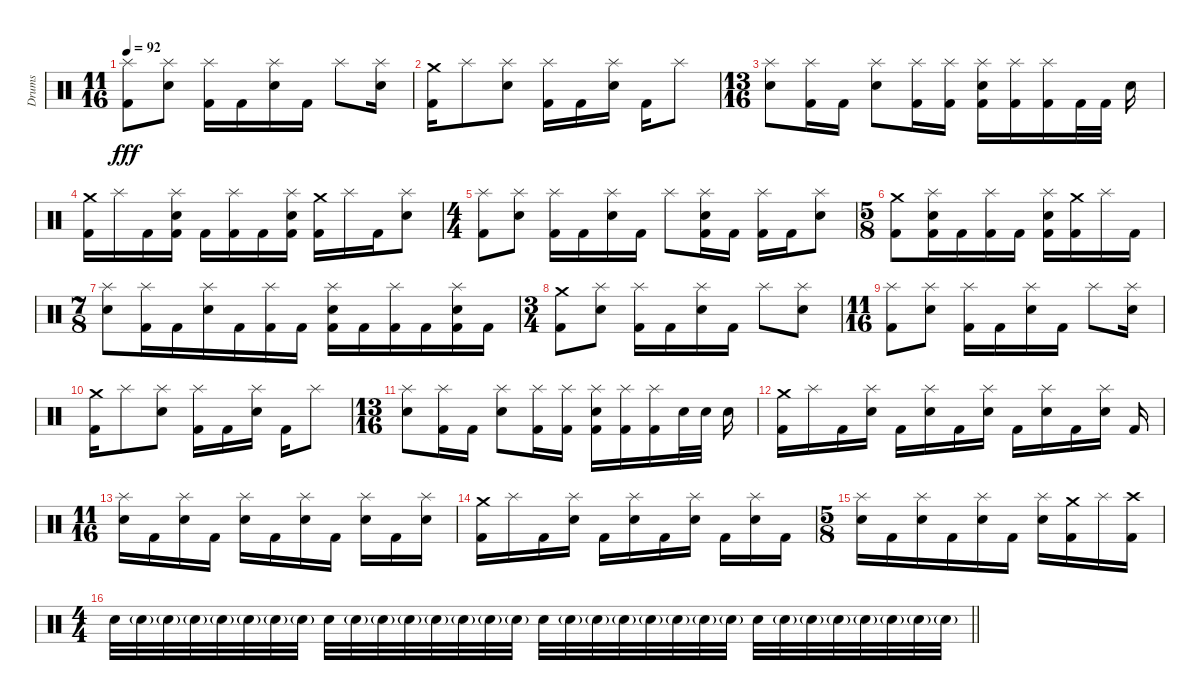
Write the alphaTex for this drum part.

\track ("Drums" "Drums") {instrument percussion}
\staff {score}
\articulation defaults
\ts (11 16)
\tempo 92
\clef neutral
\ks c
("Splash (hit)" "Kick (hit) 2").8{dy fff} ("Splash (hit)" "Snare (hit) 2").8 ("Splash (hit)" "Kick (hit) 2").16 "Kick (hit) 2".16 ("Splash (hit)" "Snare (hit) 2").16 "Kick (hit) 2".16 "Splash (hit)".8 ("Splash (hit)" "Snare (hit) 2").16 |
("Crash medium (hit)" "Kick (hit) 2").16 "Splash (hit)".8 ("Splash (hit)" "Snare (hit) 2").8 ("Splash (hit)" "Kick (hit) 2").16 "Kick (hit) 2".16 ("Splash (hit)" "Snare (hit) 2").16 "Kick (hit) 2".16 "Splash (hit)".8 |
\ts (13 16)
("Splash (hit)" "Snare (hit) 2").8 ("Splash (hit)" "Kick (hit) 2").16 "Kick (hit) 2".16 ("Splash (hit)" "Snare (hit) 2").8 ("Splash (hit)" "Kick (hit) 2").16 ("Splash (hit)" "Kick (hit) 2").16 ("Splash (hit)" "Snare (hit) 2" "Kick (hit) 2").16 ("Splash (hit)" "Kick (hit) 2").16 ("Splash (hit)" "Kick (hit) 2").16 "Kick (hit) 2".32 "Kick (hit) 2".32 "Snare (hit) 2".16 |
("Crash medium (hit)" "Kick (hit) 2").16 "Splash (hit)".16 "Kick (hit) 2".16 ("Splash (hit)" "Snare (hit) 2" "Kick (hit) 2").16 "Kick (hit) 2".16 ("Splash (hit)" "Kick (hit) 2").16 "Kick (hit) 2".16 ("Splash (hit)" "Snare (hit) 2" "Kick (hit) 2").16 ("Crash medium (hit)" "Kick (hit) 2").16 "Splash (hit)".16 "Kick (hit) 2".16 ("Splash (hit)" "Snare (hit) 2").8 |
\ts (4 4)
("Splash (hit)" "Kick (hit) 2").8 ("Splash (hit)" "Snare (hit) 2").8 ("Splash (hit)" "Kick (hit) 2").16 "Kick (hit) 2".16 ("Splash (hit)" "Snare (hit) 2").16 "Kick (hit) 2".16 "Splash (hit)".8 ("Splash (hit)" "Snare (hit) 2" "Kick (hit) 2").16 "Kick (hit) 2".16 ("Splash (hit)" "Kick (hit) 2").16 "Kick (hit) 2".16 ("Splash (hit)" "Snare (hit) 2").8 |
\ts (5 8)
("Crash medium (hit)" "Kick (hit) 2").8 ("Splash (hit)" "Snare (hit) 2" "Kick (hit) 2").16 "Kick (hit) 2".16 ("Splash (hit)" "Kick (hit) 2").16 "Kick (hit) 2".16 ("Splash (hit)" "Snare (hit) 2" "Kick (hit) 2").16 ("Crash medium (hit)" "Kick (hit) 2").16 "Splash (hit)".16 "Kick (hit) 2".16 |
\ts (7 8)
("Splash (hit)" "Snare (hit) 2").8 ("Splash (hit)" "Kick (hit) 2").16 "Kick (hit) 2".16 ("Splash (hit)" "Snare (hit) 2").16 "Kick (hit) 2".16 ("Splash (hit)" "Kick (hit) 2").16 "Kick (hit) 2".16 ("Splash (hit)" "Snare (hit) 2" "Kick (hit) 2").16 "Kick (hit) 2".16 ("Splash (hit)" "Kick (hit) 2").16 "Kick (hit) 2".16 ("Splash (hit)" "Snare (hit) 2" "Kick (hit) 2").16 "Kick (hit) 2".16 |
\ts (3 4)
("Crash medium (hit)" "Kick (hit) 2").8 ("Splash (hit)" "Snare (hit) 2").8 ("Splash (hit)" "Kick (hit) 2").16 "Kick (hit) 2".16 ("Splash (hit)" "Snare (hit) 2").16 "Kick (hit) 2".16 "Splash (hit)".8 ("Splash (hit)" "Snare (hit) 2").8 |
\ts (11 16)
("Splash (hit)" "Kick (hit) 2").8 ("Splash (hit)" "Snare (hit) 2").8 ("Splash (hit)" "Kick (hit) 2").16 "Kick (hit) 2".16 ("Splash (hit)" "Snare (hit) 2").16 "Kick (hit) 2".16 "Splash (hit)".8 ("Splash (hit)" "Snare (hit) 2").16 |
("Crash medium (hit)" "Kick (hit) 2").16 "Splash (hit)".8 ("Splash (hit)" "Snare (hit) 2").8 ("Splash (hit)" "Kick (hit) 2").16 "Kick (hit) 2".16 ("Splash (hit)" "Snare (hit) 2").16 "Kick (hit) 2".16 "Splash (hit)".8 |
\ts (13 16)
("Splash (hit)" "Snare (hit) 2").8 ("Splash (hit)" "Kick (hit) 2").16 "Kick (hit) 2".16 ("Splash (hit)" "Snare (hit) 2").8 ("Splash (hit)" "Kick (hit) 2").16 ("Splash (hit)" "Kick (hit) 2").16 ("Splash (hit)" "Snare (hit) 2" "Kick (hit) 2").16 ("Splash (hit)" "Kick (hit) 2").16 ("Splash (hit)" "Kick (hit) 2").16 "Snare (hit) 2".32 "Snare (hit) 2".32 "Snare (hit) 2".16 |
("Crash medium (hit)" "Kick (hit) 2").16 "Splash (hit)".16 "Kick (hit) 2".16 ("Splash (hit)" "Snare (hit) 2").16 "Kick (hit) 2".16 ("Splash (hit)" "Snare (hit) 2").16 "Kick (hit) 2".16 ("Splash (hit)" "Snare (hit) 2").16 "Kick (hit) 2".16 ("Splash (hit)" "Snare (hit) 2").16 "Kick (hit) 2".16 ("Splash (hit)" "Snare (hit) 2").16 "Kick (hit) 2".16 |
\ts (11 16)
("Splash (hit)" "Snare (hit) 2").16 "Kick (hit) 2".16 ("Splash (hit)" "Snare (hit) 2").16 "Kick (hit) 2".16 ("Splash (hit)" "Snare (hit) 2").16 "Kick (hit) 2".16 ("Splash (hit)" "Snare (hit) 2").16 "Kick (hit) 2".16 ("Splash (hit)" "Snare (hit) 2").16 "Kick (hit) 2".16 ("Splash (hit)" "Snare (hit) 2").16 |
("Crash medium (hit)" "Kick (hit) 2").16 "Splash (hit)".16 "Kick (hit) 2".16 ("Splash (hit)" "Snare (hit) 2").16 "Kick (hit) 2".16 ("Splash (hit)" "Snare (hit) 2").16 "Kick (hit) 2".16 ("Splash (hit)" "Snare (hit) 2").16 "Kick (hit) 2".16 ("Splash (hit)" "Snare (hit) 2").16 "Kick (hit) 2".16 |
\ts (5 8)
("Splash (hit)" "Snare (hit) 2").16 "Kick (hit) 2".16 ("Splash (hit)" "Snare (hit) 2").16 "Kick (hit) 2".16 ("Splash (hit)" "Snare (hit) 2").16 "Kick (hit) 2".16 ("Splash (hit)" "Snare (hit) 2").16 ("Crash medium (hit)" "Kick (hit) 2").16 "Splash (hit)".16 ("Crash high (hit)" "Kick (hit) 2").16 |
\ts (4 4)
\barLineRight lightlight "Snare (hit) 2".32 "Snare (hit) 2"{g}.32 "Snare (hit) 2"{g}.32 "Snare (hit) 2"{g}.32 "Electric Snare (hit)"{g}.32 "Snare (hit) 2"{g}.32 "Snare (hit) 2"{g}.32 "Electric Snare (hit)"{g}.32 "Snare (hit) 2".32 "Snare (hit) 2"{g}.32 "Snare (hit) 2"{g}.32 "Snare (hit) 2"{g}.32 "Electric Snare (hit)"{g}.32 "Snare (hit) 2"{g}.32 "Snare (hit) 2"{g}.32 "Electric Snare (hit)"{g}.32 "Snare (hit) 2".32 "Snare (hit) 2"{g}.32 "Snare (hit) 2"{g}.32 "Snare (hit) 2"{g}.32 "Electric Snare (hit)"{g}.32 "Snare (hit) 2"{g}.32 "Snare (hit) 2"{g}.32 "Electric Snare (hit)"{g}.32 "Snare (hit) 2".32 "Snare (hit) 2"{g}.32 "Snare (hit) 2"{g}.32 "Snare (hit) 2"{g}.32 "Electric Snare (hit)"{g}.32 "Snare (hit) 2"{g}.32 "Snare (hit) 2"{g}.32 "Electric Snare (hit)"{g}.32
